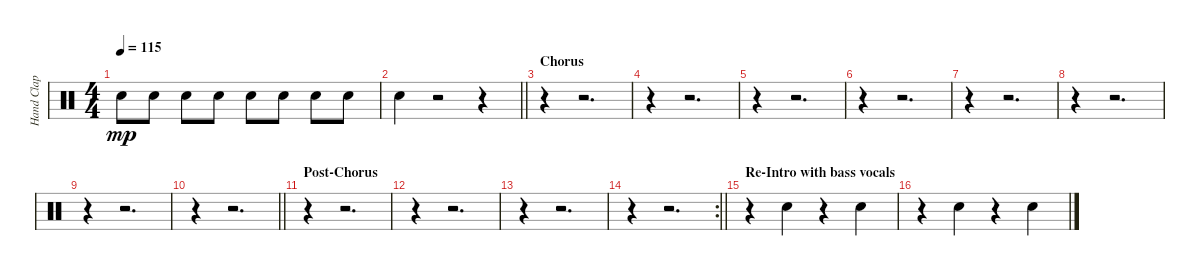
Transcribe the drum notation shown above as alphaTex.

\track ("Hand Clap" "Hand Clap") {instrument percussion}
\staff {score}
\articulation defaults
\ts (4 4)
\tempo 115
\clef neutral
\ks c "Hand Clap (hit)".8{dy mp} "Hand Clap (hit)".8 "Hand Clap (hit)".8 "Hand Clap (hit)".8 "Hand Clap (hit)".8 "Hand Clap (hit)".8 "Hand Clap (hit)".8 "Hand Clap (hit)".8
|
\barLineRight lightlight "Hand Clap (hit)".4
r.2 r.4 |
\section ("" "Chorus")
r.4 r.2{d} |
r.4 r.2{d} |
r.4 r.2{d} |
r.4 r.2{d} |
r.4 r.2{d} |
r.4 r.2{d} |
r.4 r.2{d} |
\barLineRight lightlight
r.4 r.2{d} |
\section ("" "Post-Chorus")
r.4 r.2{d} |
r.4 r.2{d} |
r.4 r.2{d} |
\rc 2
\barLineRight lightlight
r.4 r.2{d} |
\section ("" "Re-Intro with bass vocals")
r.4 "Hand Clap (hit)".4 r.4 "Hand Clap (hit)".4 |
r.4 "Hand Clap (hit)".4 r.4 "Hand Clap (hit)".4
